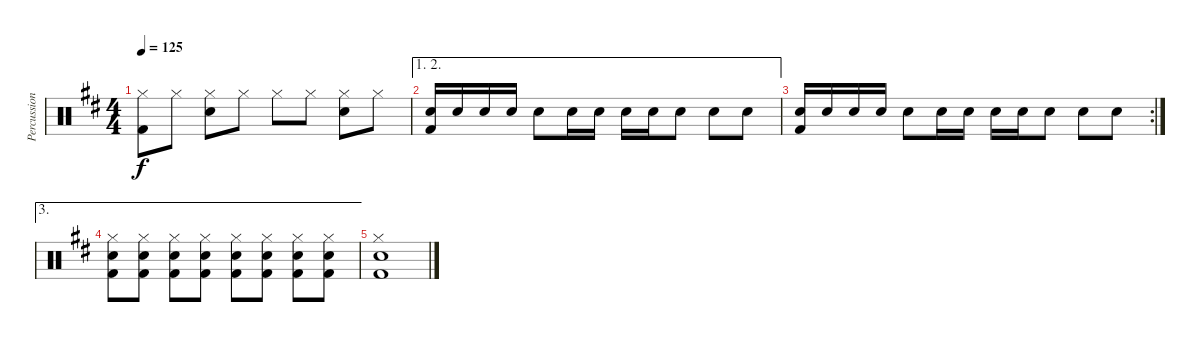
\track ("Percussion" "Percussion") {instrument percussion}
\staff {score}
\articulation defaults
\ts (4 4)
\tempo 125
\clef neutral
\ks d
("Hi-Hat (closed)" "Kick (hit) 2").8{dy f} "Hi-Hat (closed)".8 ("Hi-Hat (closed)" "Snare (hit) 2").8 "Hi-Hat (closed)".8 "Hi-Hat (closed)".8 "Hi-Hat (closed)".8 ("Hi-Hat (closed)" "Snare (hit) 2").8 "Hi-Hat (closed)".8 |
\ae (1 2)
("Snare (hit) 2" "Kick (hit) 2").16 "Snare (hit) 2".16 "Snare (hit) 2".16 "Snare (hit) 2".16 "Snare (hit) 2".8 "Snare (hit) 2".16 "Snare (hit) 2".16 "Snare (hit) 2".16 "Snare (hit) 2".16 "Snare (hit) 2".8 "Snare (hit) 2".8 "Snare (hit) 2".8 |
\rc 2
("Snare (hit) 2" "Kick (hit) 2").16 "Snare (hit) 2".16 "Snare (hit) 2".16 "Snare (hit) 2".16 "Snare (hit) 2".8 "Snare (hit) 2".16 "Snare (hit) 2".16 "Snare (hit) 2".16 "Snare (hit) 2".16 "Snare (hit) 2".8 "Snare (hit) 2".8 "Snare (hit) 2".8 |
\ae 3
("Hi-Hat (closed)" "Snare (hit) 2" "Kick (hit) 2").8 ("Hi-Hat (closed)" "Snare (hit) 2" "Kick (hit) 2").8 ("Hi-Hat (closed)" "Snare (hit) 2" "Kick (hit) 2").8 ("Hi-Hat (closed)" "Snare (hit) 2" "Kick (hit) 2").8 ("Hi-Hat (closed)" "Snare (hit) 2" "Kick (hit) 2").8 ("Hi-Hat (closed)" "Snare (hit) 2" "Kick (hit) 2").8 ("Hi-Hat (closed)" "Snare (hit) 2" "Kick (hit) 2").8 ("Hi-Hat (closed)" "Snare (hit) 2" "Kick (hit) 2").8 |
("Hi-Hat (closed)" "Snare (hit) 2" "Kick (hit) 2").1
